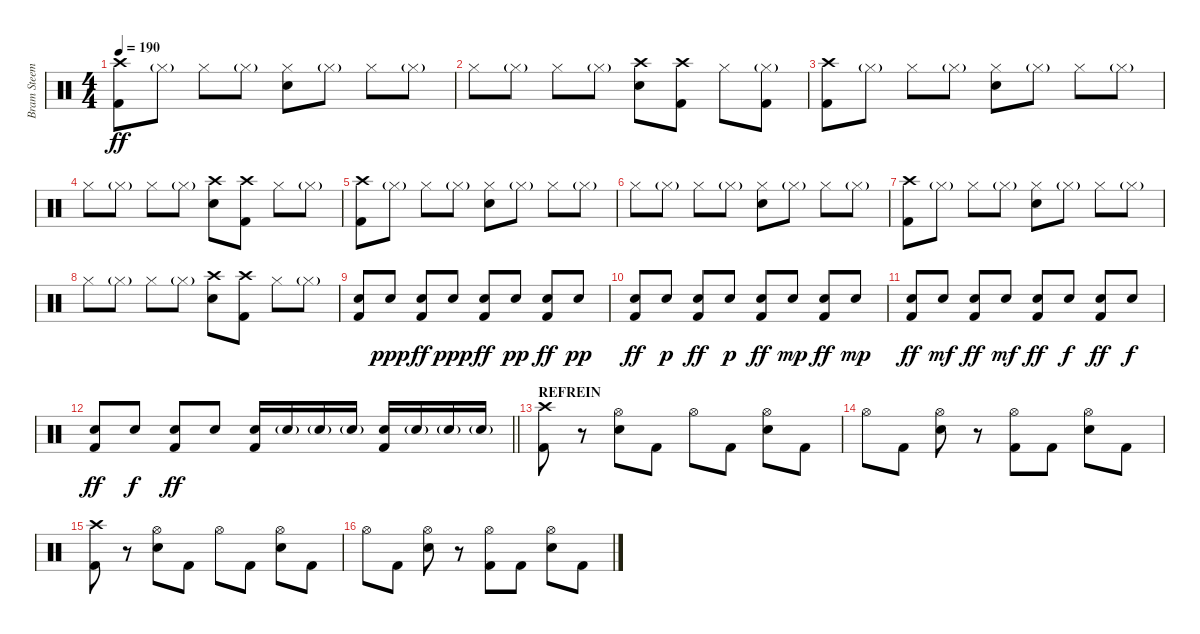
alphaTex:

\track ("Bram Steemans" "Bram Steem") {instrument percussion}
\staff {score}
\articulation defaults
\ts (4 4)
\tempo 190
\clef neutral
\ks c
("Crash high (hit)" "Kick (hit) 2").8{dy ff} "Hi-Hat (closed)"{g}.8 "Hi-Hat (closed)".8 "Hi-Hat (closed)"{g}.8 ("Hi-Hat (closed)" "Snare (hit) 2").8 "Hi-Hat (closed)"{g}.8 "Hi-Hat (closed)".8 "Hi-Hat (closed)"{g}.8 |
"Hi-Hat (closed)".8 "Hi-Hat (closed)"{g}.8 "Hi-Hat (closed)".8 "Hi-Hat (closed)"{g}.8 ("Crash high (hit)" "Snare (hit) 2").8 ("Crash high (hit)" "Kick (hit) 2").8 "Hi-Hat (closed)".8 ("Hi-Hat (closed)"{g} "Kick (hit) 2").8 |
("Crash high (hit)" "Kick (hit) 2").8 "Hi-Hat (closed)"{g}.8 "Hi-Hat (closed)".8 "Hi-Hat (closed)"{g}.8 ("Hi-Hat (closed)" "Snare (hit) 2").8 "Hi-Hat (closed)"{g}.8 "Hi-Hat (closed)".8 "Hi-Hat (closed)"{g}.8 |
"Hi-Hat (closed)".8 "Hi-Hat (closed)"{g}.8 "Hi-Hat (closed)".8 "Hi-Hat (closed)"{g}.8 ("Crash high (hit)" "Snare (hit) 2").8 ("Crash high (hit)" "Kick (hit) 2").8 "Hi-Hat (closed)".8 "Hi-Hat (closed)"{g}.8 |
("Crash high (hit)" "Kick (hit) 2").8 "Hi-Hat (closed)"{g}.8 "Hi-Hat (closed)".8 "Hi-Hat (closed)"{g}.8 ("Hi-Hat (closed)" "Snare (hit) 2").8 "Hi-Hat (closed)"{g}.8 "Hi-Hat (closed)".8 "Hi-Hat (closed)"{g}.8 |
"Hi-Hat (closed)".8 "Hi-Hat (closed)"{g}.8 "Hi-Hat (closed)".8 "Hi-Hat (closed)"{g}.8 ("Hi-Hat (closed)" "Snare (hit) 2").8 "Hi-Hat (closed)"{g}.8 "Hi-Hat (closed)".8 "Hi-Hat (closed)"{g}.8 |
("Crash high (hit)" "Kick (hit) 2").8 "Hi-Hat (closed)"{g}.8 "Hi-Hat (closed)".8 "Hi-Hat (closed)"{g}.8 ("Hi-Hat (closed)" "Snare (hit) 2").8 "Hi-Hat (closed)"{g}.8 "Hi-Hat (closed)".8 "Hi-Hat (closed)"{g}.8 |
"Hi-Hat (closed)".8 "Hi-Hat (closed)"{g}.8 "Hi-Hat (closed)".8 "Hi-Hat (closed)"{g}.8 ("Crash high (hit)" "Snare (hit) 2").8 ("Crash high (hit)" "Kick (hit) 2").8 "Hi-Hat (closed)".8 "Hi-Hat (closed)"{g}.8 |
("Snare (hit) 2" "Kick (hit) 2").8 "Snare (hit) 2".8{dy ppp} ("Snare (hit) 2" "Kick (hit) 2").8{dy ff} "Snare (hit) 2".8{dy ppp} ("Snare (hit) 2" "Kick (hit) 2").8{dy ff} "Snare (hit) 2".8{dy pp} ("Snare (hit) 2" "Kick (hit) 2").8{dy ff} "Snare (hit) 2".8{dy pp} |
("Snare (hit) 2" "Kick (hit) 2").8{dy ff} "Snare (hit) 2".8{dy p} ("Snare (hit) 2" "Kick (hit) 2").8{dy ff} "Snare (hit) 2".8{dy p} ("Snare (hit) 2" "Kick (hit) 2").8{dy ff} "Snare (hit) 2".8{dy mp} ("Snare (hit) 2" "Kick (hit) 2").8{dy ff} "Snare (hit) 2".8{dy mp} |
("Snare (hit) 2" "Kick (hit) 2").8{dy ff} "Snare (hit) 2".8{dy mf} ("Snare (hit) 2" "Kick (hit) 2").8{dy ff} "Snare (hit) 2".8{dy mf} ("Snare (hit) 2" "Kick (hit) 2").8{dy ff} "Snare (hit) 2".8{dy f} ("Snare (hit) 2" "Kick (hit) 2").8{dy ff} "Snare (hit) 2".8{dy f} |
\barLineRight lightlight
("Snare (hit) 2" "Kick (hit) 2").8{dy ff} "Snare (hit) 2".8{dy f} ("Snare (hit) 2" "Kick (hit) 2").8{dy ff} "Snare (hit) 2".8 ("Snare (hit) 2" "Kick (hit) 2").16 "Snare (hit) 2"{g}.16 "Snare (hit) 2"{g}.16 "Snare (hit) 2"{g}.16 ("Snare (hit) 2" "Kick (hit) 2").16 "Snare (hit) 2"{g}.16 "Snare (hit) 2"{g}.16 "Snare (hit) 2"{g}.16 |
\section ("" "REFREIN")
("Crash high (hit)" "Kick (hit) 2").8 r.8 ("Hi-Hat (open)" "Snare (hit) 2").8 "Kick (hit) 2".8 "Hi-Hat (open)".8 "Kick (hit) 2".8 ("Hi-Hat (open)" "Snare (hit) 2").8 "Kick (hit) 2".8 |
"Hi-Hat (open)".8 "Kick (hit) 2".8 ("Hi-Hat (open)" "Snare (hit) 2").8 r.8 ("Hi-Hat (open)" "Kick (hit) 2").8 "Kick (hit) 2".8 ("Hi-Hat (open)" "Snare (hit) 2").8 "Kick (hit) 2".8 |
("Crash high (hit)" "Kick (hit) 2").8 r.8 ("Hi-Hat (open)" "Snare (hit) 2").8 "Kick (hit) 2".8 "Hi-Hat (open)".8 "Kick (hit) 2".8 ("Hi-Hat (open)" "Snare (hit) 2").8 "Kick (hit) 2".8 |
"Hi-Hat (open)".8 "Kick (hit) 2".8 ("Hi-Hat (open)" "Snare (hit) 2").8 r.8 ("Hi-Hat (open)" "Kick (hit) 2").8 "Kick (hit) 2".8 ("Hi-Hat (open)" "Snare (hit) 2").8 "Kick (hit) 2".8
